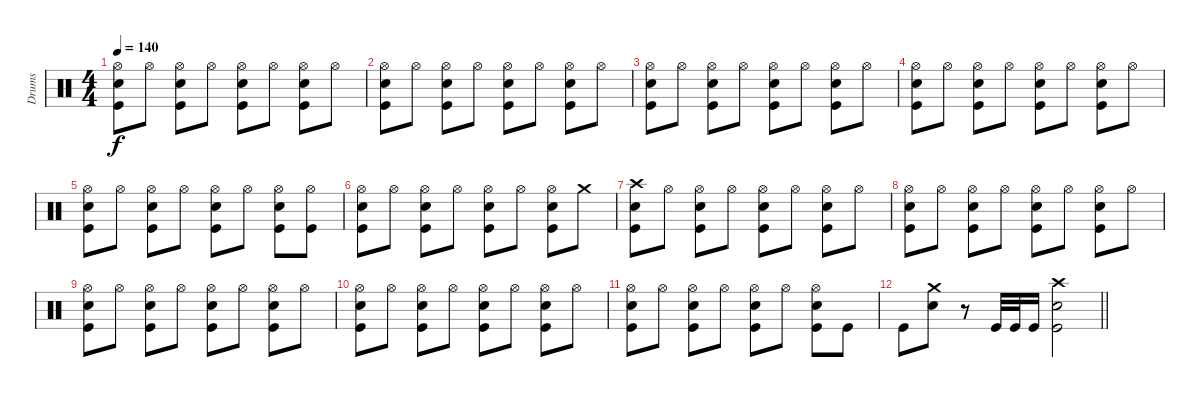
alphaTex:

\track ("Drums" "Drums") {instrument percussion}
\staff {score}
\articulation defaults
\ts (4 4)
\tempo 140
\clef neutral
\ks c
("Hi-Hat (open)" "Snare (hit) 2" "Kick (hit)").8{dy f} "Hi-Hat (open)".8 ("Hi-Hat (open)" "Snare (hit) 2" "Kick (hit)").8 "Hi-Hat (open)".8 ("Hi-Hat (open)" "Snare (hit) 2" "Kick (hit)").8 "Hi-Hat (open)".8 ("Hi-Hat (open)" "Snare (hit) 2" "Kick (hit)").8 "Hi-Hat (open)".8 |
("Hi-Hat (open)" "Snare (hit) 2" "Kick (hit)").8 "Hi-Hat (open)".8 ("Hi-Hat (open)" "Snare (hit) 2" "Kick (hit)").8 "Hi-Hat (open)".8 ("Hi-Hat (open)" "Snare (hit) 2" "Kick (hit)").8 "Hi-Hat (open)".8 ("Hi-Hat (open)" "Snare (hit) 2" "Kick (hit)").8 "Hi-Hat (open)".8 |
("Hi-Hat (open)" "Snare (hit) 2" "Kick (hit)").8 "Hi-Hat (open)".8 ("Hi-Hat (open)" "Snare (hit) 2" "Kick (hit)").8 "Hi-Hat (open)".8 ("Hi-Hat (open)" "Snare (hit) 2" "Kick (hit)").8 "Hi-Hat (open)".8 ("Hi-Hat (open)" "Snare (hit) 2" "Kick (hit)").8 "Hi-Hat (open)".8 |
("Hi-Hat (open)" "Snare (hit) 2" "Kick (hit)").8 "Hi-Hat (open)".8 ("Hi-Hat (open)" "Snare (hit) 2" "Kick (hit)").8 "Hi-Hat (open)".8 ("Hi-Hat (open)" "Snare (hit) 2" "Kick (hit)").8 "Hi-Hat (open)".8 ("Hi-Hat (open)" "Snare (hit) 2" "Kick (hit)").8 "Hi-Hat (open)".8 |
("Hi-Hat (open)" "Snare (hit) 2" "Kick (hit)").8 "Hi-Hat (open)".8 ("Hi-Hat (open)" "Snare (hit) 2" "Kick (hit)").8 "Hi-Hat (open)".8 ("Hi-Hat (open)" "Snare (hit) 2" "Kick (hit)").8 "Hi-Hat (open)".8 ("Hi-Hat (open)" "Snare (hit) 2" "Kick (hit)").8 ("Hi-Hat (open)" "Kick (hit)").8 |
("Hi-Hat (open)" "Snare (hit) 2" "Kick (hit)").8 "Hi-Hat (open)".8 ("Hi-Hat (open)" "Snare (hit) 2" "Kick (hit)").8 "Hi-Hat (open)".8 ("Hi-Hat (open)" "Snare (hit) 2" "Kick (hit)").8 "Hi-Hat (open)".8 ("Hi-Hat (open)" "Snare (hit) 2" "Kick (hit)").8 "Crash medium (hit)".8 |
("Crash high (hit)" "Snare (hit) 2" "Kick (hit)").8 "Hi-Hat (open)".8 ("Hi-Hat (open)" "Snare (hit) 2" "Kick (hit)").8 "Hi-Hat (open)".8 ("Hi-Hat (open)" "Snare (hit) 2" "Kick (hit)").8 "Hi-Hat (open)".8 ("Hi-Hat (open)" "Snare (hit) 2" "Kick (hit)").8 "Hi-Hat (open)".8 |
("Hi-Hat (open)" "Snare (hit) 2" "Kick (hit)").8 "Hi-Hat (open)".8 ("Hi-Hat (open)" "Snare (hit) 2" "Kick (hit)").8 "Hi-Hat (open)".8 ("Hi-Hat (open)" "Snare (hit) 2" "Kick (hit)").8 "Hi-Hat (open)".8 ("Hi-Hat (open)" "Snare (hit) 2" "Kick (hit)").8 "Hi-Hat (open)".8 |
("Hi-Hat (open)" "Snare (hit) 2" "Kick (hit)").8 "Hi-Hat (open)".8 ("Hi-Hat (open)" "Snare (hit) 2" "Kick (hit)").8 "Hi-Hat (open)".8 ("Hi-Hat (open)" "Snare (hit) 2" "Kick (hit)").8 "Hi-Hat (open)".8 ("Hi-Hat (open)" "Snare (hit) 2" "Kick (hit)").8 "Hi-Hat (open)".8 |
("Hi-Hat (open)" "Snare (hit) 2" "Kick (hit)").8 "Hi-Hat (open)".8 ("Hi-Hat (open)" "Snare (hit) 2" "Kick (hit)").8 "Hi-Hat (open)".8 ("Hi-Hat (open)" "Snare (hit) 2" "Kick (hit)").8 "Hi-Hat (open)".8 ("Hi-Hat (open)" "Snare (hit) 2" "Kick (hit)").8 "Hi-Hat (open)".8 |
("Hi-Hat (open)" "Snare (hit) 2" "Kick (hit)").8 "Hi-Hat (open)".8 ("Hi-Hat (open)" "Snare (hit) 2" "Kick (hit)").8 "Hi-Hat (open)".8 ("Hi-Hat (open)" "Snare (hit) 2" "Kick (hit)").8 "Hi-Hat (open)".8 ("Hi-Hat (open)" "Snare (hit) 2" "Kick (hit)").8 "Kick (hit)".8 |
\barLineRight lightlight "Kick (hit)".8
("Crash medium (hit)" "Snare (hit) 2").8 r.8 "Kick (hit)".32 "Kick (hit)".32 "Kick (hit)".16 ("Crash high (hit)" "Snare (hit) 2" "Kick (hit)").2
